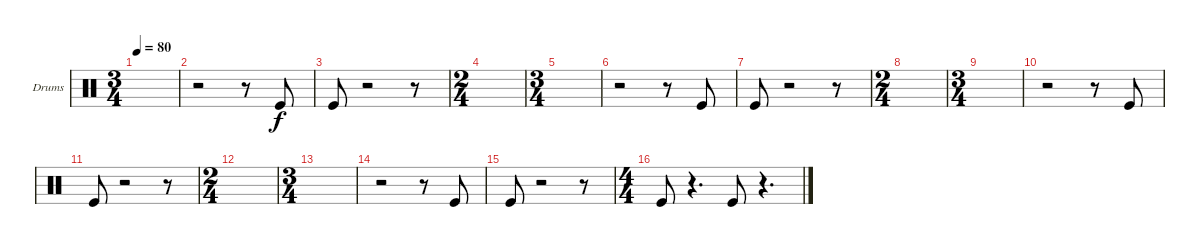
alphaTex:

\bracketExtendMode groupsimilarinstruments
\firstSystemTrackNameOrientation horizontal
\otherSystemsTrackNameOrientation horizontal
\track ("Drums" "Drums") {instrument percussion}
\staff {score}
\articulation defaults
\ts (3 4)
\beaming (8 2 2 2)
\tempo 80
\clef neutral
\ks c
|
r.2 r.8 "Kick (hit)".8 |
"Kick (hit)".8 r.2 r.8 |
\ts (2 4)
\beaming (8 2 2)
|
\ts (3 4)
\beaming (8 2 2 2)
|
r.2 r.8 "Kick (hit)".8 |
"Kick (hit)".8 r.2 r.8 |
\ts (2 4)
\beaming (8 2 2)
|
\ts (3 4)
\beaming (8 2 2 2)
|
r.2 r.8 "Kick (hit)".8 |
"Kick (hit)".8 r.2 r.8 |
\ts (2 4)
\beaming (8 2 2)
|
\ts (3 4)
\beaming (8 2 2 2)
|
r.2 r.8 "Kick (hit)".8 |
"Kick (hit)".8 r.2 r.8 |
\ts (4 4)
\beaming (8 2 2 2 2)
"Kick (hit)".8 r.4{d} "Kick (hit)".8 r.4{d}
